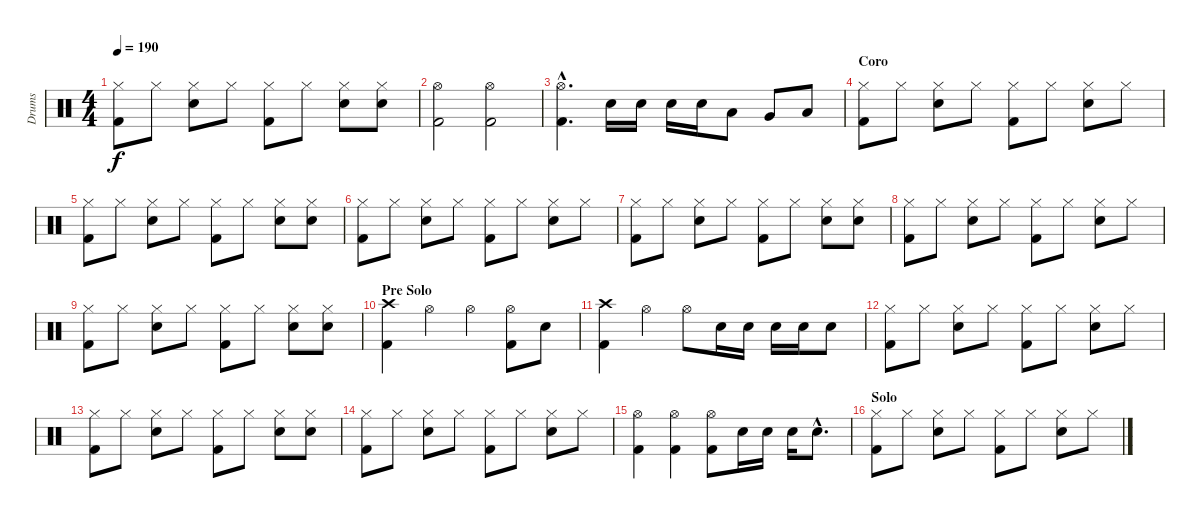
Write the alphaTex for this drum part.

\track ("Drums" "Drums") {instrument percussion}
\staff {score}
\articulation defaults
\ts (4 4)
\tempo 190
\clef neutral
\ks c
("Kick (hit) 2" "Hi-Hat (closed)").8{dy f} "Hi-Hat (closed)".8 ("Snare (hit) 2" "Hi-Hat (closed)").8 "Hi-Hat (closed)".8 ("Kick (hit) 2" "Hi-Hat (closed)").8 "Hi-Hat (closed)".8 ("Snare (hit) 2" "Hi-Hat (closed)").8 ("Snare (hit) 2" "Hi-Hat (closed)").8 |
("Hi-Hat (open)" "Kick (hit) 2").2 ("Kick (hit) 2" "Hi-Hat (open)").2 |
("Hi-Hat (open)"{hac} "Kick (hit) 2"{hac}).4{d} "Snare (hit) 2".16 "Snare (hit) 2".16 "Snare (hit) 2".16 "Snare (hit) 2".16 "Low Tom (hit)".8 "Very Low Tom (hit)".8 "Low Floor Tom (hit)".8 |
\section ("" "Coro")
("Kick (hit) 2" "Hi-Hat (closed)").8 "Hi-Hat (closed)".8 ("Snare (hit) 2" "Hi-Hat (closed)").8 "Hi-Hat (closed)".8 ("Kick (hit) 2" "Hi-Hat (closed)").8 "Hi-Hat (closed)".8 ("Snare (hit) 2" "Hi-Hat (closed)").8 "Hi-Hat (closed)".8 |
("Kick (hit) 2" "Hi-Hat (closed)").8 "Hi-Hat (closed)".8 ("Snare (hit) 2" "Hi-Hat (closed)").8 "Hi-Hat (closed)".8 ("Kick (hit) 2" "Hi-Hat (closed)").8 "Hi-Hat (closed)".8 ("Snare (hit) 2" "Hi-Hat (closed)").8 ("Snare (hit) 2" "Hi-Hat (closed)").8 |
("Kick (hit) 2" "Hi-Hat (closed)").8 "Hi-Hat (closed)".8 ("Snare (hit) 2" "Hi-Hat (closed)").8 "Hi-Hat (closed)".8 ("Kick (hit) 2" "Hi-Hat (closed)").8 "Hi-Hat (closed)".8 ("Snare (hit) 2" "Hi-Hat (closed)").8 "Hi-Hat (closed)".8 |
("Kick (hit) 2" "Hi-Hat (closed)").8 "Hi-Hat (closed)".8 ("Snare (hit) 2" "Hi-Hat (closed)").8 "Hi-Hat (closed)".8 ("Kick (hit) 2" "Hi-Hat (closed)").8 "Hi-Hat (closed)".8 ("Snare (hit) 2" "Hi-Hat (closed)").8 ("Snare (hit) 2" "Hi-Hat (closed)").8 |
("Kick (hit) 2" "Hi-Hat (closed)").8 "Hi-Hat (closed)".8 ("Snare (hit) 2" "Hi-Hat (closed)").8 "Hi-Hat (closed)".8 ("Kick (hit) 2" "Hi-Hat (closed)").8 "Hi-Hat (closed)".8 ("Snare (hit) 2" "Hi-Hat (closed)").8 "Hi-Hat (closed)".8 |
("Kick (hit) 2" "Hi-Hat (closed)").8 "Hi-Hat (closed)".8 ("Snare (hit) 2" "Hi-Hat (closed)").8 "Hi-Hat (closed)".8 ("Kick (hit) 2" "Hi-Hat (closed)").8 "Hi-Hat (closed)".8 ("Snare (hit) 2" "Hi-Hat (closed)").8 ("Snare (hit) 2" "Hi-Hat (closed)").8 |
\section ("" "Pre Solo")
("Crash high (hit)" "Kick (hit) 2").4 "Hi-Hat (open)".4 "Hi-Hat (open)".4 ("Hi-Hat (open)" "Kick (hit) 2").8 "Snare (hit) 2".8 |
("Crash high (hit)" "Kick (hit) 2").4 "Hi-Hat (open)".4 "Hi-Hat (open)".8 "Snare (hit) 2".16 "Snare (hit) 2".16 "Snare (hit) 2".16 "Snare (hit) 2".16 "Snare (hit) 2".8 |
("Kick (hit) 2" "Hi-Hat (closed)").8 "Hi-Hat (closed)".8 ("Snare (hit) 2" "Hi-Hat (closed)").8 "Hi-Hat (closed)".8 ("Kick (hit) 2" "Hi-Hat (closed)").8 "Hi-Hat (closed)".8 ("Snare (hit) 2" "Hi-Hat (closed)").8 "Hi-Hat (closed)".8 |
("Kick (hit) 2" "Hi-Hat (closed)").8 "Hi-Hat (closed)".8 ("Snare (hit) 2" "Hi-Hat (closed)").8 "Hi-Hat (closed)".8 ("Kick (hit) 2" "Hi-Hat (closed)").8 "Hi-Hat (closed)".8 ("Snare (hit) 2" "Hi-Hat (closed)").8 ("Snare (hit) 2" "Hi-Hat (closed)").8 |
("Kick (hit) 2" "Hi-Hat (closed)").8 "Hi-Hat (closed)".8 ("Snare (hit) 2" "Hi-Hat (closed)").8 "Hi-Hat (closed)".8 ("Kick (hit) 2" "Hi-Hat (closed)").8 "Hi-Hat (closed)".8 ("Snare (hit) 2" "Hi-Hat (closed)").8 "Hi-Hat (closed)".8 |
("Kick (hit) 2" "Hi-Hat (open)").4 ("Kick (hit) 2" "Hi-Hat (open)").4 ("Kick (hit) 2" "Hi-Hat (open)").8 "Snare (hit) 2".16 "Snare (hit) 2".16 "Snare (hit) 2".16 "Snare (hit) 2"{hac}.8{d} |
\section ("" "Solo")
("Kick (hit) 2" "Hi-Hat (closed)").8 "Hi-Hat (closed)".8 ("Snare (hit) 2" "Hi-Hat (closed)").8 "Hi-Hat (closed)".8 ("Kick (hit) 2" "Hi-Hat (closed)").8 "Hi-Hat (closed)".8 ("Snare (hit) 2" "Hi-Hat (closed)").8 "Hi-Hat (closed)".8
